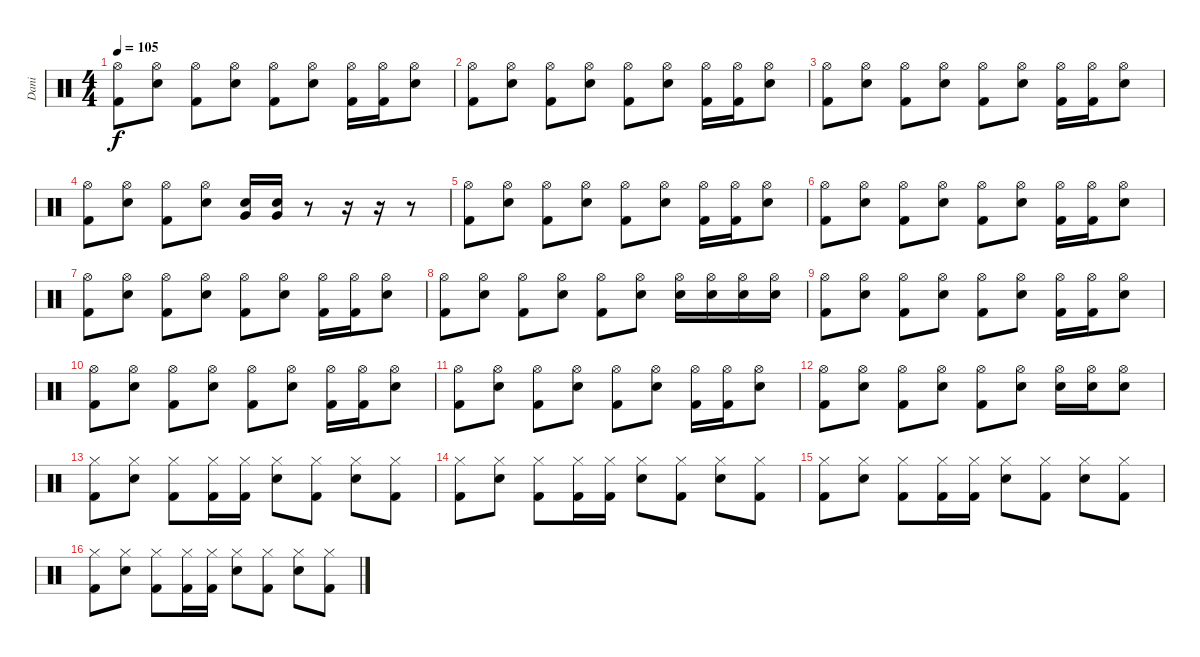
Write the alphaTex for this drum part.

\track ("Dani" "Dani") {instrument percussion}
\staff {score}
\articulation defaults
\ts (4 4)
\tempo 105
\clef neutral
\ks c
("Kick (hit) 2" "Hi-Hat (open)").8{dy f} ("Snare (hit) 2" "Hi-Hat (open)").8 ("Kick (hit) 2" "Hi-Hat (open)").8 ("Snare (hit) 2" "Hi-Hat (open)").8 ("Kick (hit) 2" "Hi-Hat (open)").8 ("Snare (hit) 2" "Hi-Hat (open)").8 ("Kick (hit) 2" "Hi-Hat (open)").16 ("Kick (hit) 2" "Hi-Hat (open)").16 ("Snare (hit) 2" "Hi-Hat (open)").8 |
("Kick (hit) 2" "Hi-Hat (open)").8 ("Snare (hit) 2" "Hi-Hat (open)").8 ("Kick (hit) 2" "Hi-Hat (open)").8 ("Snare (hit) 2" "Hi-Hat (open)").8 ("Kick (hit) 2" "Hi-Hat (open)").8 ("Snare (hit) 2" "Hi-Hat (open)").8 ("Kick (hit) 2" "Hi-Hat (open)").16 ("Kick (hit) 2" "Hi-Hat (open)").16 ("Snare (hit) 2" "Hi-Hat (open)").8 |
("Kick (hit) 2" "Hi-Hat (open)").8 ("Snare (hit) 2" "Hi-Hat (open)").8 ("Kick (hit) 2" "Hi-Hat (open)").8 ("Snare (hit) 2" "Hi-Hat (open)").8 ("Kick (hit) 2" "Hi-Hat (open)").8 ("Snare (hit) 2" "Hi-Hat (open)").8 ("Kick (hit) 2" "Hi-Hat (open)").16 ("Kick (hit) 2" "Hi-Hat (open)").16 ("Snare (hit) 2" "Hi-Hat (open)").8 |
("Kick (hit) 2" "Hi-Hat (open)").8 ("Snare (hit) 2" "Hi-Hat (open)").8 ("Kick (hit) 2" "Hi-Hat (open)").8 ("Snare (hit) 2" "Hi-Hat (open)").8 ("Snare (hit) 2" "Very Low Tom (hit)").16{volume 16} ("Snare (hit) 2" "Very Low Tom (hit)").16 r.8 r.16 r.16 r.8 |
("Kick (hit) 2" "Hi-Hat (open)").8{volume 13} ("Snare (hit) 2" "Hi-Hat (open)").8 ("Kick (hit) 2" "Hi-Hat (open)").8 ("Snare (hit) 2" "Hi-Hat (open)").8 ("Kick (hit) 2" "Hi-Hat (open)").8 ("Snare (hit) 2" "Hi-Hat (open)").8 ("Kick (hit) 2" "Hi-Hat (open)").16 ("Kick (hit) 2" "Hi-Hat (open)").16 ("Snare (hit) 2" "Hi-Hat (open)").8 |
("Kick (hit) 2" "Hi-Hat (open)").8 ("Snare (hit) 2" "Hi-Hat (open)").8 ("Kick (hit) 2" "Hi-Hat (open)").8 ("Snare (hit) 2" "Hi-Hat (open)").8 ("Kick (hit) 2" "Hi-Hat (open)").8 ("Snare (hit) 2" "Hi-Hat (open)").8 ("Kick (hit) 2" "Hi-Hat (open)").16 ("Kick (hit) 2" "Hi-Hat (open)").16 ("Snare (hit) 2" "Hi-Hat (open)").8 |
("Kick (hit) 2" "Hi-Hat (open)").8 ("Snare (hit) 2" "Hi-Hat (open)").8 ("Kick (hit) 2" "Hi-Hat (open)").8 ("Snare (hit) 2" "Hi-Hat (open)").8 ("Kick (hit) 2" "Hi-Hat (open)").8 ("Snare (hit) 2" "Hi-Hat (open)").8 ("Kick (hit) 2" "Hi-Hat (open)").16 ("Kick (hit) 2" "Hi-Hat (open)").16 ("Snare (hit) 2" "Hi-Hat (open)").8 |
("Kick (hit) 2" "Hi-Hat (open)").8 ("Snare (hit) 2" "Hi-Hat (open)").8 ("Kick (hit) 2" "Hi-Hat (open)").8 ("Snare (hit) 2" "Hi-Hat (open)").8 ("Kick (hit) 2" "Hi-Hat (open)").8 ("Snare (hit) 2" "Hi-Hat (open)").8 ("Snare (hit) 2" "Hi-Hat (open)").16 ("Snare (hit) 2" "Hi-Hat (open)").16 ("Snare (hit) 2" "Hi-Hat (open)").16 ("Snare (hit) 2" "Hi-Hat (open)").16 |
("Kick (hit) 2" "Hi-Hat (open)").8 ("Snare (hit) 2" "Hi-Hat (open)").8 ("Kick (hit) 2" "Hi-Hat (open)").8 ("Snare (hit) 2" "Hi-Hat (open)").8 ("Kick (hit) 2" "Hi-Hat (open)").8 ("Snare (hit) 2" "Hi-Hat (open)").8 ("Kick (hit) 2" "Hi-Hat (open)").16 ("Kick (hit) 2" "Hi-Hat (open)").16 ("Snare (hit) 2" "Hi-Hat (open)").8 |
("Kick (hit) 2" "Hi-Hat (open)").8 ("Snare (hit) 2" "Hi-Hat (open)").8 ("Kick (hit) 2" "Hi-Hat (open)").8 ("Snare (hit) 2" "Hi-Hat (open)").8 ("Kick (hit) 2" "Hi-Hat (open)").8 ("Snare (hit) 2" "Hi-Hat (open)").8 ("Kick (hit) 2" "Hi-Hat (open)").16 ("Kick (hit) 2" "Hi-Hat (open)").16 ("Snare (hit) 2" "Hi-Hat (open)").8 |
("Kick (hit) 2" "Hi-Hat (open)").8 ("Snare (hit) 2" "Hi-Hat (open)").8 ("Kick (hit) 2" "Hi-Hat (open)").8 ("Snare (hit) 2" "Hi-Hat (open)").8 ("Kick (hit) 2" "Hi-Hat (open)").8 ("Snare (hit) 2" "Hi-Hat (open)").8 ("Kick (hit) 2" "Hi-Hat (open)").16 ("Kick (hit) 2" "Hi-Hat (open)").16 ("Snare (hit) 2" "Hi-Hat (open)").8 |
("Kick (hit) 2" "Hi-Hat (open)").8 ("Snare (hit) 2" "Hi-Hat (open)").8 ("Kick (hit) 2" "Hi-Hat (open)").8 ("Snare (hit) 2" "Hi-Hat (open)").8 ("Kick (hit) 2" "Hi-Hat (open)").8 ("Snare (hit) 2" "Hi-Hat (open)").8 ("Snare (hit) 2" "Hi-Hat (open)").16 ("Snare (hit) 2" "Hi-Hat (open)").16 ("Snare (hit) 2" "Hi-Hat (open)").8 |
("Kick (hit) 2" "Hi-Hat (closed)").8 ("Snare (hit) 2" "Hi-Hat (closed)").8 ("Kick (hit) 2" "Hi-Hat (closed)").8 ("Kick (hit) 2" "Hi-Hat (closed)").16 ("Kick (hit) 2" "Hi-Hat (closed)").16 ("Snare (hit) 2" "Hi-Hat (closed)").8 ("Kick (hit) 2" "Hi-Hat (closed)").8 ("Snare (hit) 2" "Hi-Hat (closed)").8 ("Kick (hit) 2" "Hi-Hat (closed)").8 |
("Kick (hit) 2" "Hi-Hat (closed)").8 ("Snare (hit) 2" "Hi-Hat (closed)").8 ("Kick (hit) 2" "Hi-Hat (closed)").8 ("Kick (hit) 2" "Hi-Hat (closed)").16 ("Kick (hit) 2" "Hi-Hat (closed)").16 ("Snare (hit) 2" "Hi-Hat (closed)").8 ("Kick (hit) 2" "Hi-Hat (closed)").8 ("Snare (hit) 2" "Hi-Hat (closed)").8 ("Kick (hit) 2" "Hi-Hat (closed)").8 |
("Kick (hit) 2" "Hi-Hat (closed)").8 ("Snare (hit) 2" "Hi-Hat (closed)").8 ("Kick (hit) 2" "Hi-Hat (closed)").8 ("Kick (hit) 2" "Hi-Hat (closed)").16 ("Kick (hit) 2" "Hi-Hat (closed)").16 ("Snare (hit) 2" "Hi-Hat (closed)").8 ("Kick (hit) 2" "Hi-Hat (closed)").8 ("Snare (hit) 2" "Hi-Hat (closed)").8 ("Kick (hit) 2" "Hi-Hat (closed)").8 |
("Kick (hit) 2" "Hi-Hat (closed)").8 ("Snare (hit) 2" "Hi-Hat (closed)").8 ("Kick (hit) 2" "Hi-Hat (closed)").8 ("Kick (hit) 2" "Hi-Hat (closed)").16 ("Kick (hit) 2" "Hi-Hat (closed)").16 ("Snare (hit) 2" "Hi-Hat (closed)").8 ("Kick (hit) 2" "Hi-Hat (closed)").8 ("Snare (hit) 2" "Hi-Hat (closed)").8 ("Kick (hit) 2" "Hi-Hat (closed)").8
